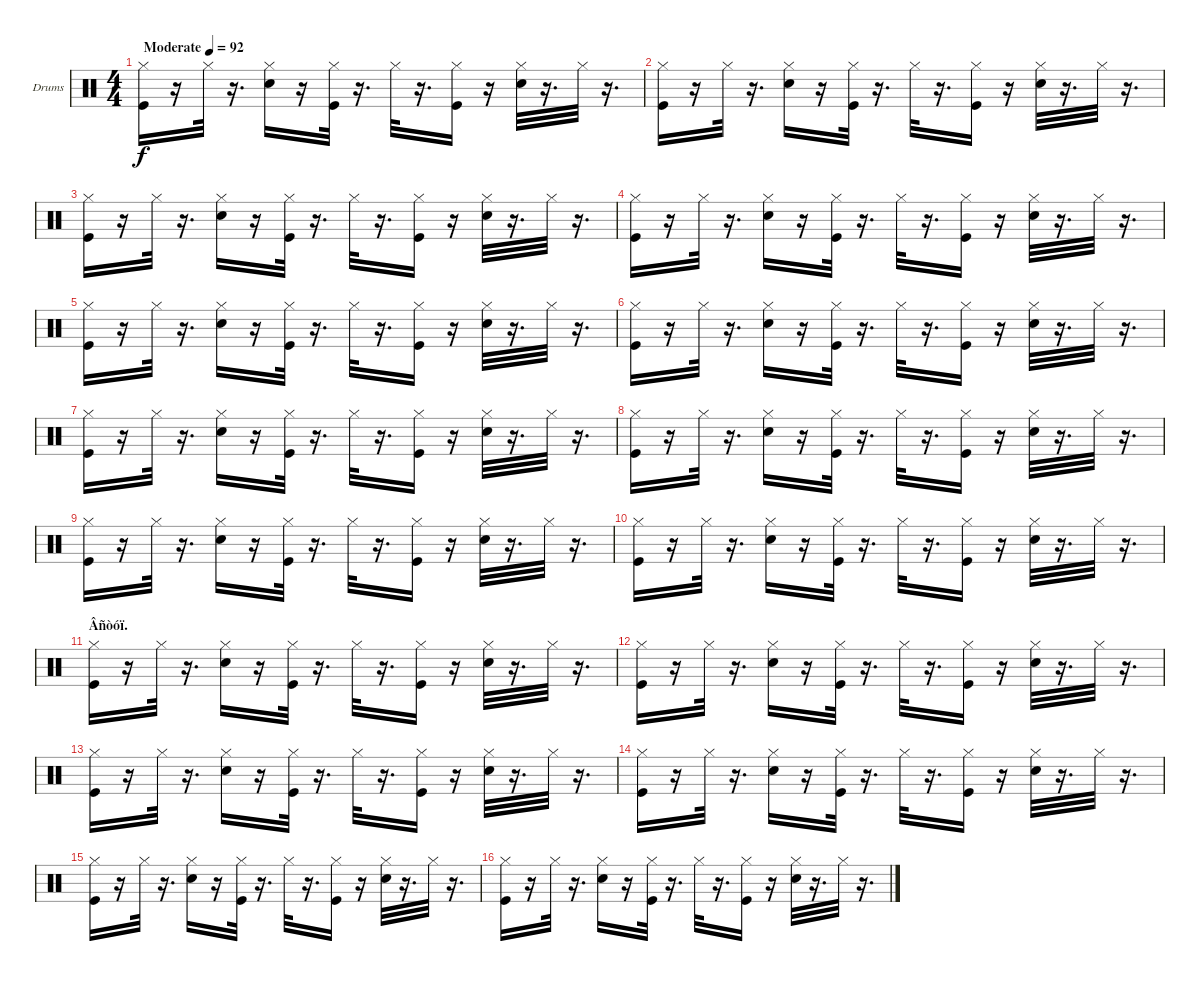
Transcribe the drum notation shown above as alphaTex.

\bracketExtendMode groupsimilarinstruments
\firstSystemTrackNameOrientation horizontal
\otherSystemsTrackNameOrientation horizontal
\track ("Drumkit" "Drums") {instrument percussion}
\staff {score}
\articulation defaults
\ts (4 4)
\beaming (8 2 2 2 2)
\tempo (92 "Moderate")
\clef neutral
\ks c
("Kick (hit)" "Hi-Hat (closed)").16{dy f} r.16 "Hi-Hat (closed)".32 r.16{d} ("Snare (hit) 2" "Hi-Hat (closed)").16 r.16 ("Kick (hit)" "Hi-Hat (closed)").32 r.16{d} "Hi-Hat (closed)".32 r.16{d} ("Kick (hit)" "Hi-Hat (closed)").16 r.16 ("Snare (hit) 2" "Hi-Hat (closed)").32 r.16{d} "Hi-Hat (closed)".32 r.16{d} |
("Kick (hit)" "Hi-Hat (closed)").16 r.16 "Hi-Hat (closed)".32 r.16{d} ("Snare (hit) 2" "Hi-Hat (closed)").16 r.16 ("Kick (hit)" "Hi-Hat (closed)").32 r.16{d} "Hi-Hat (closed)".32 r.16{d} ("Kick (hit)" "Hi-Hat (closed)").16 r.16 ("Snare (hit) 2" "Hi-Hat (closed)").32 r.16{d} "Hi-Hat (closed)".32 r.16{d} |
("Kick (hit)" "Hi-Hat (closed)").16 r.16 "Hi-Hat (closed)".32 r.16{d} ("Snare (hit) 2" "Hi-Hat (closed)").16 r.16 ("Kick (hit)" "Hi-Hat (closed)").32 r.16{d} "Hi-Hat (closed)".32 r.16{d} ("Kick (hit)" "Hi-Hat (closed)").16 r.16 ("Snare (hit) 2" "Hi-Hat (closed)").32 r.16{d} "Hi-Hat (closed)".32 r.16{d} |
("Kick (hit)" "Hi-Hat (closed)").16 r.16 "Hi-Hat (closed)".32 r.16{d} ("Snare (hit) 2" "Hi-Hat (closed)").16 r.16 ("Kick (hit)" "Hi-Hat (closed)").32 r.16{d} "Hi-Hat (closed)".32 r.16{d} ("Kick (hit)" "Hi-Hat (closed)").16 r.16 ("Snare (hit) 2" "Hi-Hat (closed)").32 r.16{d} "Hi-Hat (closed)".32 r.16{d} |
("Kick (hit)" "Hi-Hat (closed)").16 r.16 "Hi-Hat (closed)".32 r.16{d} ("Snare (hit) 2" "Hi-Hat (closed)").16 r.16 ("Kick (hit)" "Hi-Hat (closed)").32 r.16{d} "Hi-Hat (closed)".32 r.16{d} ("Kick (hit)" "Hi-Hat (closed)").16 r.16 ("Snare (hit) 2" "Hi-Hat (closed)").32 r.16{d} "Hi-Hat (closed)".32 r.16{d} |
("Kick (hit)" "Hi-Hat (closed)").16 r.16 "Hi-Hat (closed)".32 r.16{d} ("Snare (hit) 2" "Hi-Hat (closed)").16 r.16 ("Kick (hit)" "Hi-Hat (closed)").32 r.16{d} "Hi-Hat (closed)".32 r.16{d} ("Kick (hit)" "Hi-Hat (closed)").16 r.16 ("Snare (hit) 2" "Hi-Hat (closed)").32 r.16{d} "Hi-Hat (closed)".32 r.16{d} |
("Kick (hit)" "Hi-Hat (closed)").16 r.16 "Hi-Hat (closed)".32 r.16{d} ("Snare (hit) 2" "Hi-Hat (closed)").16 r.16 ("Kick (hit)" "Hi-Hat (closed)").32 r.16{d} "Hi-Hat (closed)".32 r.16{d} ("Kick (hit)" "Hi-Hat (closed)").16 r.16 ("Snare (hit) 2" "Hi-Hat (closed)").32 r.16{d} "Hi-Hat (closed)".32 r.16{d} |
("Kick (hit)" "Hi-Hat (closed)").16 r.16 "Hi-Hat (closed)".32 r.16{d} ("Snare (hit) 2" "Hi-Hat (closed)").16 r.16 ("Kick (hit)" "Hi-Hat (closed)").32 r.16{d} "Hi-Hat (closed)".32 r.16{d} ("Kick (hit)" "Hi-Hat (closed)").16 r.16 ("Snare (hit) 2" "Hi-Hat (closed)").32 r.16{d} "Hi-Hat (closed)".32 r.16{d} |
("Kick (hit)" "Hi-Hat (closed)").16 r.16 "Hi-Hat (closed)".32 r.16{d} ("Snare (hit) 2" "Hi-Hat (closed)").16 r.16 ("Kick (hit)" "Hi-Hat (closed)").32 r.16{d} "Hi-Hat (closed)".32 r.16{d} ("Kick (hit)" "Hi-Hat (closed)").16 r.16 ("Snare (hit) 2" "Hi-Hat (closed)").32 r.16{d} "Hi-Hat (closed)".32 r.16{d} |
("Kick (hit)" "Hi-Hat (closed)").16 r.16 "Hi-Hat (closed)".32 r.16{d} ("Snare (hit) 2" "Hi-Hat (closed)").16 r.16 ("Kick (hit)" "Hi-Hat (closed)").32 r.16{d} "Hi-Hat (closed)".32 r.16{d} ("Kick (hit)" "Hi-Hat (closed)").16 r.16 ("Snare (hit) 2" "Hi-Hat (closed)").32 r.16{d} "Hi-Hat (closed)".32 r.16{d} |
\section ("" "Âñòóï.")
("Kick (hit)" "Hi-Hat (closed)").16 r.16 "Hi-Hat (closed)".32 r.16{d} ("Snare (hit) 2" "Hi-Hat (closed)").16 r.16 ("Kick (hit)" "Hi-Hat (closed)").32 r.16{d} "Hi-Hat (closed)".32 r.16{d} ("Kick (hit)" "Hi-Hat (closed)").16 r.16 ("Snare (hit) 2" "Hi-Hat (closed)").32 r.16{d} "Hi-Hat (closed)".32 r.16{d} |
("Kick (hit)" "Hi-Hat (closed)").16 r.16 "Hi-Hat (closed)".32 r.16{d} ("Snare (hit) 2" "Hi-Hat (closed)").16 r.16 ("Kick (hit)" "Hi-Hat (closed)").32 r.16{d} "Hi-Hat (closed)".32 r.16{d} ("Kick (hit)" "Hi-Hat (closed)").16 r.16 ("Snare (hit) 2" "Hi-Hat (closed)").32 r.16{d} "Hi-Hat (closed)".32 r.16{d} |
("Kick (hit)" "Hi-Hat (closed)").16 r.16 "Hi-Hat (closed)".32 r.16{d} ("Snare (hit) 2" "Hi-Hat (closed)").16 r.16 ("Kick (hit)" "Hi-Hat (closed)").32 r.16{d} "Hi-Hat (closed)".32 r.16{d} ("Kick (hit)" "Hi-Hat (closed)").16 r.16 ("Snare (hit) 2" "Hi-Hat (closed)").32 r.16{d} "Hi-Hat (closed)".32 r.16{d} |
("Kick (hit)" "Hi-Hat (closed)").16 r.16 "Hi-Hat (closed)".32 r.16{d} ("Snare (hit) 2" "Hi-Hat (closed)").16 r.16 ("Kick (hit)" "Hi-Hat (closed)").32 r.16{d} "Hi-Hat (closed)".32 r.16{d} ("Kick (hit)" "Hi-Hat (closed)").16 r.16 ("Snare (hit) 2" "Hi-Hat (closed)").32 r.16{d} "Hi-Hat (closed)".32 r.16{d} |
("Kick (hit)" "Hi-Hat (closed)").16 r.16 "Hi-Hat (closed)".32 r.16{d} ("Snare (hit) 2" "Hi-Hat (closed)").16 r.16 ("Kick (hit)" "Hi-Hat (closed)").32 r.16{d} "Hi-Hat (closed)".32 r.16{d} ("Kick (hit)" "Hi-Hat (closed)").16 r.16 ("Snare (hit) 2" "Hi-Hat (closed)").32 r.16{d} "Hi-Hat (closed)".32 r.16{d} |
("Kick (hit)" "Hi-Hat (closed)").16 r.16 "Hi-Hat (closed)".32 r.16{d} ("Snare (hit) 2" "Hi-Hat (closed)").16 r.16 ("Kick (hit)" "Hi-Hat (closed)").32 r.16{d} "Hi-Hat (closed)".32 r.16{d} ("Kick (hit)" "Hi-Hat (closed)").16 r.16 ("Snare (hit) 2" "Hi-Hat (closed)").32 r.16{d} "Hi-Hat (closed)".32 r.16{d}
